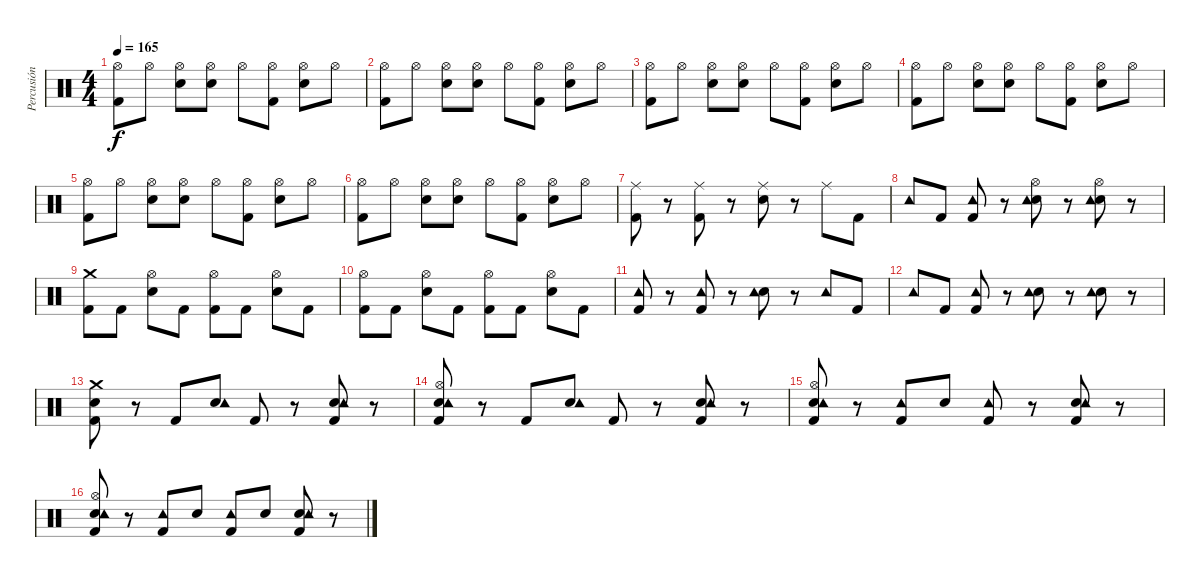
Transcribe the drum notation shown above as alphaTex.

\track ("Percusión" "Percusión") {instrument percussion}
\staff {score}
\articulation defaults
\ts (4 4)
\tempo 165
\clef neutral
\ks c
("Kick (hit) 2" "Hi-Hat (open)").8{dy f} "Hi-Hat (open)".8 ("Snare (hit) 2" "Hi-Hat (open)").8 ("Snare (hit) 2" "Hi-Hat (open)").8 "Hi-Hat (open)".8 ("Kick (hit) 2" "Hi-Hat (open)").8 ("Snare (hit) 2" "Hi-Hat (open)").8 "Hi-Hat (open)".8 |
("Kick (hit) 2" "Hi-Hat (open)").8 "Hi-Hat (open)".8 ("Snare (hit) 2" "Hi-Hat (open)").8 ("Snare (hit) 2" "Hi-Hat (open)").8 "Hi-Hat (open)".8 ("Kick (hit) 2" "Hi-Hat (open)").8 ("Snare (hit) 2" "Hi-Hat (open)").8 "Hi-Hat (open)".8 |
("Kick (hit) 2" "Hi-Hat (open)").8 "Hi-Hat (open)".8 ("Snare (hit) 2" "Hi-Hat (open)").8 ("Snare (hit) 2" "Hi-Hat (open)").8 "Hi-Hat (open)".8 ("Kick (hit) 2" "Hi-Hat (open)").8 ("Snare (hit) 2" "Hi-Hat (open)").8 "Hi-Hat (open)".8 |
("Kick (hit) 2" "Hi-Hat (open)").8 "Hi-Hat (open)".8 ("Snare (hit) 2" "Hi-Hat (open)").8 ("Snare (hit) 2" "Hi-Hat (open)").8 "Hi-Hat (open)".8 ("Kick (hit) 2" "Hi-Hat (open)").8 ("Snare (hit) 2" "Hi-Hat (open)").8 "Hi-Hat (open)".8 |
("Kick (hit) 2" "Hi-Hat (open)").8 "Hi-Hat (open)".8 ("Snare (hit) 2" "Hi-Hat (open)").8 ("Snare (hit) 2" "Hi-Hat (open)").8 "Hi-Hat (open)".8 ("Kick (hit) 2" "Hi-Hat (open)").8 ("Snare (hit) 2" "Hi-Hat (open)").8 "Hi-Hat (open)".8 |
("Kick (hit) 2" "Hi-Hat (open)").8 "Hi-Hat (open)".8 ("Snare (hit) 2" "Hi-Hat (open)").8 ("Snare (hit) 2" "Hi-Hat (open)").8 "Hi-Hat (open)".8 ("Kick (hit) 2" "Hi-Hat (open)").8 ("Snare (hit) 2" "Hi-Hat (open)").8 "Hi-Hat (open)".8 |
("Kick (hit) 2" "Ride (middle)").8 r.8 ("Kick (hit) 2" "Ride (middle)").8 r.8 ("Snare (hit) 2" "Ride (middle)").8 r.8 "Ride (middle)".8 "Kick (hit) 2".8 |
"Tambourine (hit)".8 "Kick (hit) 2".8 ("Kick (hit) 2" "Tambourine (hit)").8 r.8 ("Snare (hit) 2" "Tambourine (hit)" "Hi-Hat (open)").8 r.8 ("Snare (hit) 2" "Tambourine (hit)" "Hi-Hat (open)").8 r.8 |
("Kick (hit) 2" "Crash medium (hit)").8 "Kick (hit) 2".8 ("Snare (hit) 2" "Hi-Hat (open)").8 "Kick (hit) 2".8 ("Kick (hit) 2" "Hi-Hat (open)").8 "Kick (hit) 2".8 ("Snare (hit) 2" "Hi-Hat (open)").8 "Kick (hit) 2".8 |
("Kick (hit) 2" "Hi-Hat (open)").8 "Kick (hit) 2".8 ("Snare (hit) 2" "Hi-Hat (open)").8 "Kick (hit) 2".8 ("Kick (hit) 2" "Hi-Hat (open)").8 "Kick (hit) 2".8 ("Snare (hit) 2" "Hi-Hat (open)").8 "Kick (hit) 2".8 |
("Kick (hit) 2" "Tambourine (hit)").8 r.8 ("Kick (hit) 2" "Tambourine (hit)").8 r.8 ("Snare (hit) 2" "Tambourine (hit)").8 r.8 "Tambourine (hit)".8 "Kick (hit) 2".8 |
"Tambourine (hit)".8 "Kick (hit) 2".8 ("Kick (hit) 2" "Tambourine (hit)").8 r.8 ("Snare (hit) 2" "Tambourine (hit)").8 r.8 ("Snare (hit) 2" "Tambourine (hit)").8 r.8 |
("Snare (hit) 2" "Kick (hit) 2" "Crash medium (hit)").8 r.8 "Kick (hit) 2".8 ("Snare (hit) 2" "Tambourine (hit)").8 "Kick (hit) 2".8 r.8 ("Snare (hit) 2" "Kick (hit) 2" "Tambourine (hit)").8 r.8 |
("Snare (hit) 2" "Kick (hit) 2" "Tambourine (hit)" "Hi-Hat (open)").8 r.8 "Kick (hit) 2".8 ("Snare (hit) 2" "Tambourine (hit)").8 "Kick (hit) 2".8 r.8 ("Snare (hit) 2" "Kick (hit) 2" "Tambourine (hit)").8 r.8 |
("Snare (hit) 2" "Kick (hit) 2" "Tambourine (hit)" "Hi-Hat (open)").8 r.8 ("Kick (hit) 2" "Tambourine (hit)").8 "Snare (hit) 2".8 ("Kick (hit) 2" "Tambourine (hit)").8 r.8 ("Snare (hit) 2" "Kick (hit) 2" "Tambourine (hit)").8 r.8 |
("Snare (hit) 2" "Kick (hit) 2" "Tambourine (hit)" "Hi-Hat (open)").8 r.8 ("Kick (hit) 2" "Tambourine (hit)").8 "Snare (hit) 2".8 ("Kick (hit) 2" "Tambourine (hit)").8 "Snare (hit) 2".8 ("Snare (hit) 2" "Kick (hit) 2" "Tambourine (hit)").8 r.8
